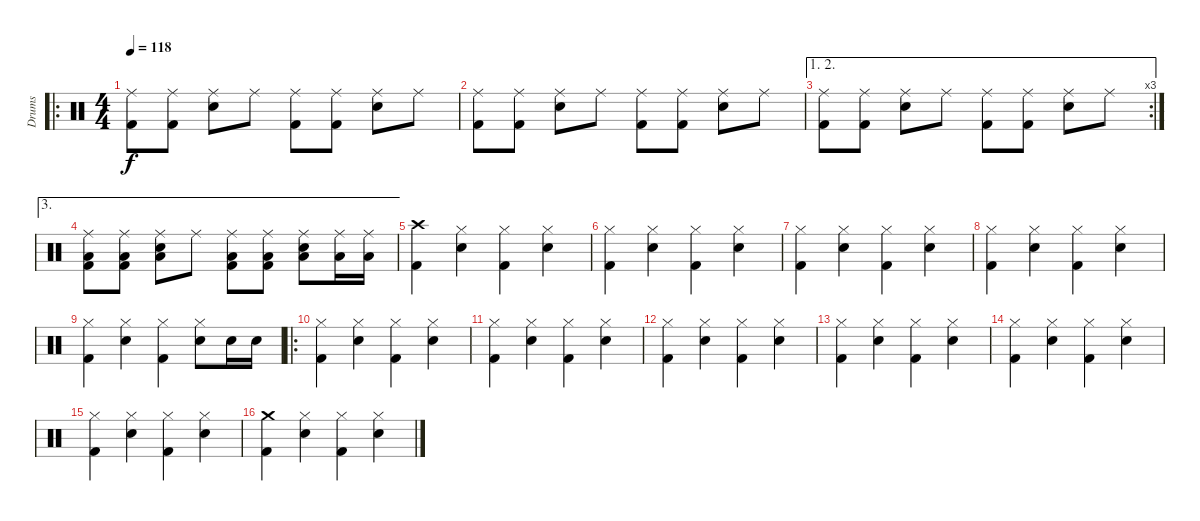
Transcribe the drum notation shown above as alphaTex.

\track ("Drums" "Drums") {instrument percussion}
\staff {score}
\articulation defaults
\ro
\ts (4 4)
\tempo 118
\clef neutral
\ks c
("Ride (middle)" "Kick (hit) 2").8{dy f} ("Ride (middle)" "Kick (hit) 2").8 ("Ride (middle)" "Electric Snare (hit)").8 "Ride (middle)".8 ("Ride (middle)" "Kick (hit) 2").8 ("Ride (middle)" "Kick (hit) 2").8 ("Ride (middle)" "Electric Snare (hit)").8 "Ride (middle)".8 |
("Ride (middle)" "Kick (hit) 2").8 ("Ride (middle)" "Kick (hit) 2").8 ("Ride (middle)" "Electric Snare (hit)").8 "Ride (middle)".8 ("Ride (middle)" "Kick (hit) 2").8 ("Ride (middle)" "Kick (hit) 2").8 ("Ride (middle)" "Electric Snare (hit)").8 "Ride (middle)".8 |
\ae (1 2)
\rc 3
("Ride (middle)" "Kick (hit) 2").8 ("Ride (middle)" "Kick (hit) 2").8 ("Ride (middle)" "Electric Snare (hit)").8 "Ride (middle)".8 ("Ride (middle)" "Kick (hit) 2").8 ("Ride (middle)" "Kick (hit) 2").8 ("Ride (middle)" "Electric Snare (hit)").8 "Ride (middle)".8 |
\ae 3
("Ride (middle)" "Low Tom (hit)" "Kick (hit) 2").8 ("Ride (middle)" "Low Tom (hit)" "Kick (hit) 2").8 ("Ride (middle)" "Low Floor Tom (hit)" "Electric Snare (hit)").8 "Ride (middle)".8 ("Ride (middle)" "Low Tom (hit)" "Kick (hit) 2").8 ("Ride (middle)" "Low Tom (hit)" "Kick (hit) 2").8 ("Ride (middle)" "Low Floor Tom (hit)" "Electric Snare (hit)").8 ("Ride (middle)" "Low Floor Tom (hit)").16 ("Ride (middle)" "Low Floor Tom (hit)").16 |
("Crash high (hit)" "Kick (hit) 2").4 ("Hi-Hat (closed)" "Electric Snare (hit)").4 ("Hi-Hat (closed)" "Kick (hit) 2").4 ("Hi-Hat (closed)" "Electric Snare (hit)").4 |
("Hi-Hat (closed)" "Kick (hit) 2").4 ("Hi-Hat (closed)" "Electric Snare (hit)").4 ("Hi-Hat (closed)" "Kick (hit) 2").4 ("Hi-Hat (closed)" "Electric Snare (hit)").4 |
("Hi-Hat (closed)" "Kick (hit) 2").4 ("Hi-Hat (closed)" "Electric Snare (hit)").4 ("Hi-Hat (closed)" "Kick (hit) 2").4 ("Hi-Hat (closed)" "Electric Snare (hit)").4 |
("Hi-Hat (closed)" "Kick (hit) 2").4 ("Hi-Hat (closed)" "Electric Snare (hit)").4 ("Hi-Hat (closed)" "Kick (hit) 2").4 ("Hi-Hat (closed)" "Electric Snare (hit)").4 |
("Hi-Hat (closed)" "Kick (hit) 2").4 ("Hi-Hat (closed)" "Electric Snare (hit)").4 ("Hi-Hat (closed)" "Kick (hit) 2").4 ("Hi-Hat (closed)" "Electric Snare (hit)").8 "Electric Snare (hit)".16 "Electric Snare (hit)".16 |
\ro
("Hi-Hat (closed)" "Kick (hit) 2").4 ("Hi-Hat (closed)" "Electric Snare (hit)").4 ("Hi-Hat (closed)" "Kick (hit) 2").4 ("Hi-Hat (closed)" "Electric Snare (hit)").4 |
("Hi-Hat (closed)" "Kick (hit) 2").4 ("Hi-Hat (closed)" "Electric Snare (hit)").4 ("Hi-Hat (closed)" "Kick (hit) 2").4 ("Hi-Hat (closed)" "Electric Snare (hit)").4 |
("Hi-Hat (closed)" "Kick (hit) 2").4 ("Hi-Hat (closed)" "Electric Snare (hit)").4 ("Hi-Hat (closed)" "Kick (hit) 2").4 ("Hi-Hat (closed)" "Electric Snare (hit)").4 |
("Hi-Hat (closed)" "Kick (hit) 2").4 ("Hi-Hat (closed)" "Electric Snare (hit)").4 ("Hi-Hat (closed)" "Kick (hit) 2").4 ("Hi-Hat (closed)" "Electric Snare (hit)").4 |
("Hi-Hat (closed)" "Kick (hit) 2").4 ("Hi-Hat (closed)" "Electric Snare (hit)").4 ("Hi-Hat (closed)" "Kick (hit) 2").4 ("Hi-Hat (closed)" "Electric Snare (hit)").4 |
("Hi-Hat (closed)" "Kick (hit) 2").4 ("Hi-Hat (closed)" "Electric Snare (hit)").4 ("Hi-Hat (closed)" "Kick (hit) 2").4 ("Hi-Hat (closed)" "Electric Snare (hit)").4 |
("Crash medium (hit)" "Kick (hit) 2").4 ("Hi-Hat (closed)" "Electric Snare (hit)").4 ("Hi-Hat (closed)" "Kick (hit) 2").4 ("Hi-Hat (closed)" "Electric Snare (hit)").4
